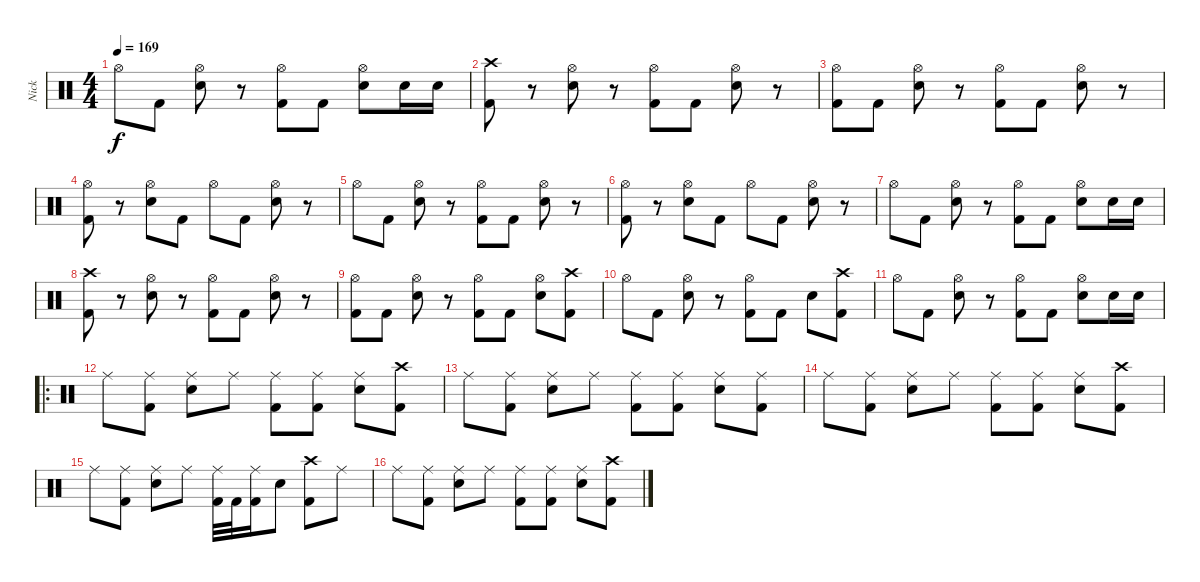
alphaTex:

\track ("Nick" "Nick") {instrument percussion}
\staff {score}
\articulation defaults
\ts (4 4)
\tempo 169
\clef neutral
\ks c "Hi-Hat (open)".8{dy f} "Kick (hit) 2".8
("Hi-Hat (open)" "Snare (hit) 2").8 r.8 ("Hi-Hat (open)" "Kick (hit) 2").8 "Kick (hit) 2".8 ("Hi-Hat (open)" "Snare (hit) 2").8 "Snare (hit) 2".16 "Snare (hit) 2".16 |
("Crash high (hit)" "Kick (hit) 2").8 r.8 ("Hi-Hat (open)" "Snare (hit) 2").8 r.8 ("Hi-Hat (open)" "Kick (hit) 2").8 "Kick (hit) 2".8 ("Hi-Hat (open)" "Snare (hit) 2").8 r.8 |
("Hi-Hat (open)" "Kick (hit) 2").8 "Kick (hit) 2".8 ("Hi-Hat (open)" "Snare (hit) 2").8 r.8 ("Hi-Hat (open)" "Kick (hit) 2").8 "Kick (hit) 2".8 ("Hi-Hat (open)" "Snare (hit) 2").8 r.8 |
("Hi-Hat (open)" "Kick (hit) 2").8 r.8 ("Hi-Hat (open)" "Snare (hit) 2").8 "Kick (hit) 2".8 "Hi-Hat (open)".8 "Kick (hit) 2".8 ("Hi-Hat (open)" "Snare (hit) 2").8 r.8 |
"Hi-Hat (open)".8 "Kick (hit) 2".8 ("Hi-Hat (open)" "Snare (hit) 2").8 r.8 ("Hi-Hat (open)" "Kick (hit) 2").8 "Kick (hit) 2".8 ("Hi-Hat (open)" "Snare (hit) 2").8 r.8 |
("Hi-Hat (open)" "Kick (hit) 2").8 r.8 ("Hi-Hat (open)" "Snare (hit) 2").8 "Kick (hit) 2".8 "Hi-Hat (open)".8 "Kick (hit) 2".8 ("Hi-Hat (open)" "Snare (hit) 2").8 r.8 |
"Hi-Hat (open)".8 "Kick (hit) 2".8 ("Hi-Hat (open)" "Snare (hit) 2").8 r.8 ("Hi-Hat (open)" "Kick (hit) 2").8 "Kick (hit) 2".8 ("Hi-Hat (open)" "Snare (hit) 2").8 "Snare (hit) 2".16 "Snare (hit) 2".16 |
("Crash high (hit)" "Kick (hit) 2").8 r.8 ("Hi-Hat (open)" "Snare (hit) 2").8 r.8 ("Hi-Hat (open)" "Kick (hit) 2").8 "Kick (hit) 2".8 ("Hi-Hat (open)" "Snare (hit) 2").8 r.8 |
("Hi-Hat (open)" "Kick (hit) 2").8 "Kick (hit) 2".8 ("Hi-Hat (open)" "Snare (hit) 2").8 r.8 ("Hi-Hat (open)" "Kick (hit) 2").8 "Kick (hit) 2".8 ("Hi-Hat (open)" "Snare (hit) 2").8 ("Crash high (hit)" "Kick (hit) 2").8 |
"Hi-Hat (open)".8 "Kick (hit) 2".8 ("Hi-Hat (open)" "Snare (hit) 2").8 r.8 ("Hi-Hat (open)" "Kick (hit) 2").8 "Kick (hit) 2".8 "Snare (hit) 2".8 ("Crash high (hit)" "Kick (hit) 2").8 |
"Hi-Hat (open)".8 "Kick (hit) 2".8 ("Hi-Hat (open)" "Snare (hit) 2").8 r.8 ("Hi-Hat (open)" "Kick (hit) 2").8 "Kick (hit) 2".8 ("Hi-Hat (open)" "Snare (hit) 2").8 "Snare (hit) 2".16 "Snare (hit) 2".16 |
\ro "Ride (middle)".8
("Ride (middle)" "Kick (hit) 2").8 ("Ride (middle)" "Snare (hit) 2").8 "Ride (middle)".8 ("Ride (middle)" "Kick (hit) 2").8 ("Ride (middle)" "Kick (hit) 2").8 ("Ride (middle)" "Snare (hit) 2").8 ("Crash high (hit)" "Kick (hit) 2").8 |
"Ride (middle)".8 ("Ride (middle)" "Kick (hit) 2").8 ("Ride (middle)" "Snare (hit) 2").8 "Ride (middle)".8 ("Ride (middle)" "Kick (hit) 2").8 ("Ride (middle)" "Kick (hit) 2").8 ("Ride (middle)" "Snare (hit) 2").8 ("Ride (middle)" "Kick (hit) 2").8 |
"Ride (middle)".8 ("Ride (middle)" "Kick (hit) 2").8 ("Ride (middle)" "Snare (hit) 2").8 "Ride (middle)".8 ("Ride (middle)" "Kick (hit) 2").8 ("Ride (middle)" "Kick (hit) 2").8 ("Ride (middle)" "Snare (hit) 2").8 ("Crash high (hit)" "Kick (hit) 2").8 |
"Ride (middle)".8 ("Ride (middle)" "Kick (hit) 2").8 ("Ride (middle)" "Snare (hit) 2").8 "Ride (middle)".8 ("Ride (middle)" "Kick (hit) 2").32 "Kick (hit) 2".32 ("Ride (middle)" "Kick (hit) 2").16 "Snare (hit) 2".8 ("Crash high (hit)" "Kick (hit) 2").8 "Ride (middle)".8 |
"Ride (middle)".8 ("Ride (middle)" "Kick (hit) 2").8 ("Ride (middle)" "Snare (hit) 2").8 "Ride (middle)".8 ("Ride (middle)" "Kick (hit) 2").8 ("Ride (middle)" "Kick (hit) 2").8 ("Ride (middle)" "Snare (hit) 2").8 ("Crash high (hit)" "Kick (hit) 2").8
